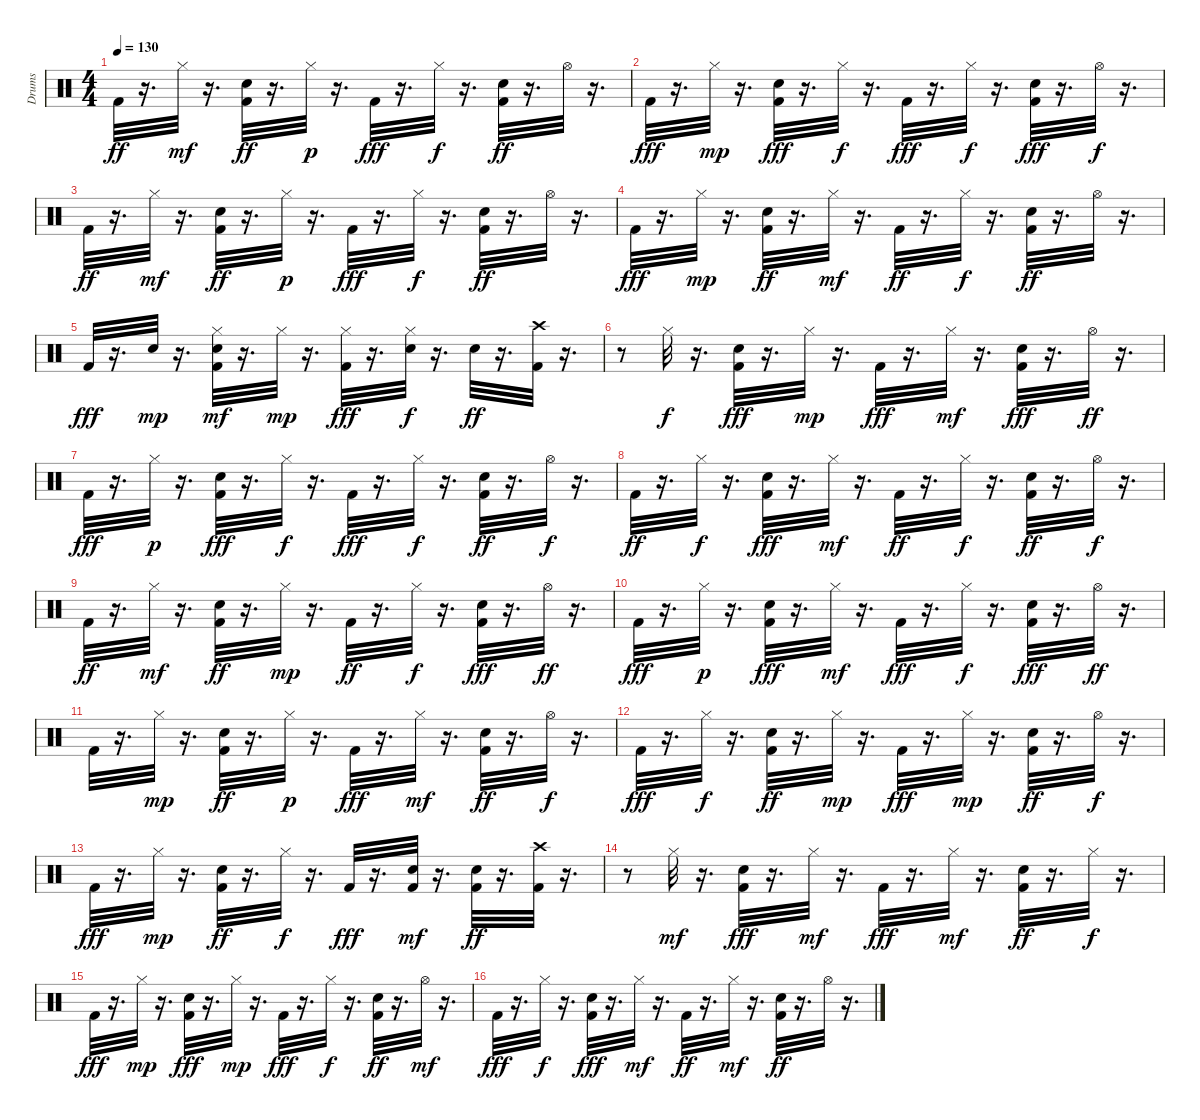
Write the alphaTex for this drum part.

\track ("Drums               " "Drums     ") {instrument percussion}
\staff {score}
\articulation defaults
\ts (4 4)
\tempo 130
\clef neutral
\ks c "Kick (hit) 2".32{dy ff}
r.16{d} "Hi-Hat (closed)".32{dy mf} r.16{d} ("Kick (hit) 2" "Snare (hit) 2").32{dy ff} r.16{d} "Hi-Hat (closed)".32{dy p} r.16{d} "Kick (hit) 2".32{dy fff} r.16{d} "Hi-Hat (closed)".32{dy f} r.16{d} ("Kick (hit) 2" "Snare (hit) 2").32{dy ff} r.16{d} "Hi-Hat (open)".32 r.16{d} |
"Kick (hit) 2".32{dy fff} r.16{d} "Hi-Hat (closed)".32{dy mp} r.16{d} ("Kick (hit) 2" "Snare (hit) 2").32{dy fff} r.16{d} "Hi-Hat (closed)".32{dy f} r.16{d} "Kick (hit) 2".32{dy fff} r.16{d} "Hi-Hat (closed)".32{dy f} r.16{d} ("Kick (hit) 2" "Snare (hit) 2").32{dy fff} r.16{d} "Hi-Hat (open)".32{dy f} r.16{d} |
"Kick (hit) 2".32{dy ff} r.16{d} "Hi-Hat (closed)".32{dy mf} r.16{d} ("Kick (hit) 2" "Snare (hit) 2").32{dy ff} r.16{d} "Hi-Hat (closed)".32{dy p} r.16{d} "Kick (hit) 2".32{dy fff} r.16{d} "Hi-Hat (closed)".32{dy f} r.16{d} ("Kick (hit) 2" "Snare (hit) 2").32{dy ff} r.16{d} "Hi-Hat (open)".32 r.16{d} |
"Kick (hit) 2".32{dy fff} r.16{d} "Hi-Hat (closed)".32{dy mp} r.16{d} ("Kick (hit) 2" "Snare (hit) 2").32{dy ff} r.16{d} "Hi-Hat (closed)".32{dy mf} r.16{d} "Kick (hit) 2".32{dy ff} r.16{d} "Hi-Hat (closed)".32{dy f} r.16{d} ("Kick (hit) 2" "Snare (hit) 2").32{dy ff} r.16{d} "Hi-Hat (open)".32 r.16{d} |
"Kick (hit) 2".32{dy fff} r.16{d} "Snare (hit) 2".32{dy mp} r.16{d} ("Kick (hit) 2" "Snare (hit) 2" "Hi-Hat (closed)").32{dy mf} r.16{d} "Hi-Hat (closed)".32{dy mp} r.16{d} ("Kick (hit) 2" "Hi-Hat (closed)").32{dy fff} r.16{d} ("Snare (hit) 2" "Hi-Hat (closed)").32{dy f} r.16{d} "Snare (hit) 2".32{dy ff} r.16{d} ("Kick (hit) 2" "Crash high (hit)").32 r.16{d} |
r.8 "Hi-Hat (closed)".32{dy f} r.16{d} ("Kick (hit) 2" "Snare (hit) 2").32{dy fff} r.16{d} "Hi-Hat (closed)".32{dy mp} r.16{d} "Kick (hit) 2".32{dy fff} r.16{d} "Hi-Hat (closed)".32{dy mf} r.16{d} ("Kick (hit) 2" "Snare (hit) 2").32{dy fff} r.16{d} "Hi-Hat (open)".32{dy ff} r.16{d} |
"Kick (hit) 2".32{dy fff} r.16{d} "Hi-Hat (closed)".32{dy p} r.16{d} ("Kick (hit) 2" "Snare (hit) 2").32{dy fff} r.16{d} "Hi-Hat (closed)".32{dy f} r.16{d} "Kick (hit) 2".32{dy fff} r.16{d} "Hi-Hat (closed)".32{dy f} r.16{d} ("Kick (hit) 2" "Snare (hit) 2").32{dy ff} r.16{d} "Hi-Hat (open)".32{dy f} r.16{d} |
"Kick (hit) 2".32{dy ff} r.16{d} "Hi-Hat (closed)".32{dy f} r.16{d} ("Kick (hit) 2" "Snare (hit) 2").32{dy fff} r.16{d} "Hi-Hat (closed)".32{dy mf} r.16{d} "Kick (hit) 2".32{dy ff} r.16{d} "Hi-Hat (closed)".32{dy f} r.16{d} ("Kick (hit) 2" "Snare (hit) 2").32{dy ff} r.16{d} "Hi-Hat (open)".32{dy f} r.16{d} |
"Kick (hit) 2".32{dy ff} r.16{d} "Hi-Hat (closed)".32{dy mf} r.16{d} ("Kick (hit) 2" "Snare (hit) 2").32{dy ff} r.16{d} "Hi-Hat (closed)".32{dy mp} r.16{d} "Kick (hit) 2".32{dy ff} r.16{d} "Hi-Hat (closed)".32{dy f} r.16{d} ("Kick (hit) 2" "Snare (hit) 2").32{dy fff} r.16{d} "Hi-Hat (open)".32{dy ff} r.16{d} |
"Kick (hit) 2".32{dy fff} r.16{d} "Hi-Hat (closed)".32{dy p} r.16{d} ("Kick (hit) 2" "Snare (hit) 2").32{dy fff} r.16{d} "Hi-Hat (closed)".32{dy mf} r.16{d} "Kick (hit) 2".32{dy fff} r.16{d} "Hi-Hat (closed)".32{dy f} r.16{d} ("Kick (hit) 2" "Snare (hit) 2").32{dy fff} r.16{d} "Hi-Hat (open)".32{dy ff} r.16{d} |
"Kick (hit) 2".32 r.16{d} "Hi-Hat (closed)".32{dy mp} r.16{d} ("Kick (hit) 2" "Snare (hit) 2").32{dy ff} r.16{d} "Hi-Hat (closed)".32{dy p} r.16{d} "Kick (hit) 2".32{dy fff} r.16{d} "Hi-Hat (closed)".32{dy mf} r.16{d} ("Kick (hit) 2" "Snare (hit) 2").32{dy ff} r.16{d} "Hi-Hat (open)".32{dy f} r.16{d} |
"Kick (hit) 2".32{dy fff} r.16{d} "Hi-Hat (closed)".32{dy f} r.16{d} ("Kick (hit) 2" "Snare (hit) 2").32{dy ff} r.16{d} "Hi-Hat (closed)".32{dy mp} r.16{d} "Kick (hit) 2".32{dy fff} r.16{d} "Hi-Hat (closed)".32{dy mp} r.16{d} ("Kick (hit) 2" "Snare (hit) 2").32{dy ff} r.16{d} "Hi-Hat (open)".32{dy f} r.16{d} |
"Kick (hit) 2".32{dy fff} r.16{d} "Hi-Hat (closed)".32{dy mp} r.16{d} ("Kick (hit) 2" "Snare (hit) 2").32{dy ff} r.16{d} "Hi-Hat (closed)".32{dy f} r.16{d} "Kick (hit) 2".32{dy fff} r.16{d} ("Kick (hit) 2" "Snare (hit) 2").32{dy mf} r.16{d} ("Kick (hit) 2" "Snare (hit) 2").32{dy ff} r.16{d} ("Kick (hit) 2" "Crash high (hit)").32 r.16{d} |
r.8 "Hi-Hat (closed)".32{dy mf} r.16{d} ("Kick (hit) 2" "Snare (hit) 2").32{dy fff} r.16{d} "Hi-Hat (closed)".32{dy mf} r.16{d} "Kick (hit) 2".32{dy fff} r.16{d} "Hi-Hat (closed)".32{dy mf} r.16{d} ("Kick (hit) 2" "Snare (hit) 2").32{dy ff} r.16{d} "Hi-Hat (closed)".32{dy f} r.16{d} |
"Kick (hit) 2".32{dy fff} r.16{d} "Hi-Hat (closed)".32{dy mp} r.16{d} ("Kick (hit) 2" "Snare (hit) 2").32{dy fff} r.16{d} "Hi-Hat (closed)".32{dy mp} r.16{d} "Kick (hit) 2".32{dy fff} r.16{d} "Hi-Hat (closed)".32{dy f} r.16{d} ("Kick (hit) 2" "Snare (hit) 2").32{dy ff} r.16{d} "Hi-Hat (open)".32{dy mf} r.16{d} |
"Kick (hit) 2".32{dy fff} r.16{d} "Hi-Hat (closed)".32{dy f} r.16{d} ("Kick (hit) 2" "Snare (hit) 2").32{dy fff} r.16{d} "Hi-Hat (closed)".32{dy mf} r.16{d} "Kick (hit) 2".32{dy ff} r.16{d} "Hi-Hat (closed)".32{dy mf} r.16{d} ("Kick (hit) 2" "Snare (hit) 2").32{dy ff} r.16{d} "Hi-Hat (open)".32 r.16{d}
